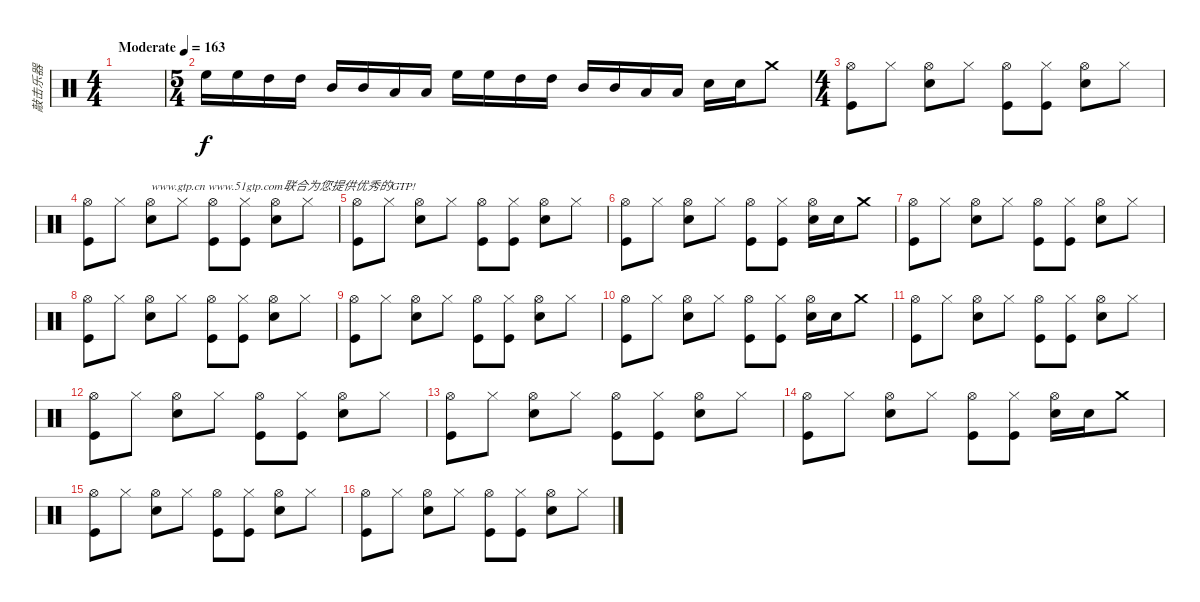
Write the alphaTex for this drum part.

\track ("敲击乐器" "敲击乐器") {instrument percussion}
\staff {score}
\articulation defaults
\ts (4 4)
\tempo (163 "Moderate")
\clef neutral
\ks c
|
\ts (5 4)
"High Floor Tom (hit)".16 "High Floor Tom (hit)".16 "High Tom (hit)".16 "High Tom (hit)".16 "Mid Tom (hit)".16 "Mid Tom (hit)".16 "Low Tom (hit)".16 "Low Tom (hit)".16 "High Floor Tom (hit)".16 "High Floor Tom (hit)".16 "High Tom (hit)".16 "High Tom (hit)".16 "Mid Tom (hit)".16 "Mid Tom (hit)".16 "Low Tom (hit)".16 "Low Tom (hit)".16 "Snare (hit) 2".16 "Snare (hit) 2".16 "Crash medium (hit)".8 |
\ts (4 4)
("Hi-Hat (open)" "Kick (hit)").8 "Hi-Hat (closed)".8 ("Hi-Hat (open)" "Snare (hit) 2").8 "Hi-Hat (closed)".8 ("Hi-Hat (open)" "Kick (hit)").8 ("Hi-Hat (closed)" "Kick (hit)").8 ("Hi-Hat (open)" "Snare (hit) 2").8 "Hi-Hat (closed)".8 |
("Hi-Hat (open)" "Kick (hit)").8 "Hi-Hat (closed)".8 ("Hi-Hat (open)" "Snare (hit) 2").8{txt "www.gtp.cn www.51gtp.com联合为您提供优秀的GTP!"} "Hi-Hat (closed)".8 ("Hi-Hat (open)" "Kick (hit)").8 ("Hi-Hat (closed)" "Kick (hit)").8 ("Hi-Hat (open)" "Snare (hit) 2").8 "Hi-Hat (closed)".8 |
("Hi-Hat (open)" "Kick (hit)").8 "Hi-Hat (closed)".8 ("Hi-Hat (open)" "Snare (hit) 2").8 "Hi-Hat (closed)".8 ("Hi-Hat (open)" "Kick (hit)").8 ("Hi-Hat (closed)" "Kick (hit)").8 ("Hi-Hat (open)" "Snare (hit) 2").8 "Hi-Hat (closed)".8 |
("Hi-Hat (open)" "Kick (hit)").8 "Hi-Hat (closed)".8 ("Hi-Hat (open)" "Snare (hit) 2").8 "Hi-Hat (closed)".8 ("Hi-Hat (open)" "Kick (hit)").8 ("Hi-Hat (closed)" "Kick (hit)").8 ("Hi-Hat (open)" "Snare (hit) 2").16 "Snare (hit) 2".16 "Crash medium (hit)".8 |
("Hi-Hat (open)" "Kick (hit)").8 "Hi-Hat (closed)".8 ("Hi-Hat (open)" "Snare (hit) 2").8 "Hi-Hat (closed)".8 ("Hi-Hat (open)" "Kick (hit)").8 ("Hi-Hat (closed)" "Kick (hit)").8 ("Hi-Hat (open)" "Snare (hit) 2").8 "Hi-Hat (closed)".8 |
("Hi-Hat (open)" "Kick (hit)").8 "Hi-Hat (closed)".8 ("Hi-Hat (open)" "Snare (hit) 2").8 "Hi-Hat (closed)".8 ("Hi-Hat (open)" "Kick (hit)").8 ("Hi-Hat (closed)" "Kick (hit)").8 ("Hi-Hat (open)" "Snare (hit) 2").8 "Hi-Hat (closed)".8 |
("Hi-Hat (open)" "Kick (hit)").8 "Hi-Hat (closed)".8 ("Hi-Hat (open)" "Snare (hit) 2").8 "Hi-Hat (closed)".8 ("Hi-Hat (open)" "Kick (hit)").8 ("Hi-Hat (closed)" "Kick (hit)").8 ("Hi-Hat (open)" "Snare (hit) 2").8 "Hi-Hat (closed)".8 |
("Hi-Hat (open)" "Kick (hit)").8 "Hi-Hat (closed)".8 ("Hi-Hat (open)" "Snare (hit) 2").8 "Hi-Hat (closed)".8 ("Hi-Hat (open)" "Kick (hit)").8 ("Hi-Hat (closed)" "Kick (hit)").8 ("Hi-Hat (open)" "Snare (hit) 2").16 "Snare (hit) 2".16 "Crash medium (hit)".8 |
("Hi-Hat (open)" "Kick (hit)").8 "Hi-Hat (closed)".8 ("Hi-Hat (open)" "Snare (hit) 2").8 "Hi-Hat (closed)".8 ("Hi-Hat (open)" "Kick (hit)").8 ("Hi-Hat (closed)" "Kick (hit)").8 ("Hi-Hat (open)" "Snare (hit) 2").8 "Hi-Hat (closed)".8 |
("Hi-Hat (open)" "Kick (hit)").8 "Hi-Hat (closed)".8 ("Hi-Hat (open)" "Snare (hit) 2").8 "Hi-Hat (closed)".8 ("Hi-Hat (open)" "Kick (hit)").8 ("Hi-Hat (closed)" "Kick (hit)").8 ("Hi-Hat (open)" "Snare (hit) 2").8 "Hi-Hat (closed)".8 |
("Hi-Hat (open)" "Kick (hit)").8 "Hi-Hat (closed)".8 ("Hi-Hat (open)" "Snare (hit) 2").8 "Hi-Hat (closed)".8 ("Hi-Hat (open)" "Kick (hit)").8 ("Hi-Hat (closed)" "Kick (hit)").8 ("Hi-Hat (open)" "Snare (hit) 2").8 "Hi-Hat (closed)".8 |
("Hi-Hat (open)" "Kick (hit)").8 "Hi-Hat (closed)".8 ("Hi-Hat (open)" "Snare (hit) 2").8 "Hi-Hat (closed)".8 ("Hi-Hat (open)" "Kick (hit)").8 ("Hi-Hat (closed)" "Kick (hit)").8 ("Hi-Hat (open)" "Snare (hit) 2").16 "Snare (hit) 2".16 "Crash medium (hit)".8 |
("Hi-Hat (open)" "Kick (hit)").8 "Hi-Hat (closed)".8 ("Hi-Hat (open)" "Snare (hit) 2").8 "Hi-Hat (closed)".8 ("Hi-Hat (open)" "Kick (hit)").8 ("Hi-Hat (closed)" "Kick (hit)").8 ("Hi-Hat (open)" "Snare (hit) 2").8 "Hi-Hat (closed)".8 |
("Hi-Hat (open)" "Kick (hit)").8 "Hi-Hat (closed)".8 ("Hi-Hat (open)" "Snare (hit) 2").8 "Hi-Hat (closed)".8 ("Hi-Hat (open)" "Kick (hit)").8 ("Hi-Hat (closed)" "Kick (hit)").8 ("Hi-Hat (open)" "Snare (hit) 2").8 "Hi-Hat (closed)".8
